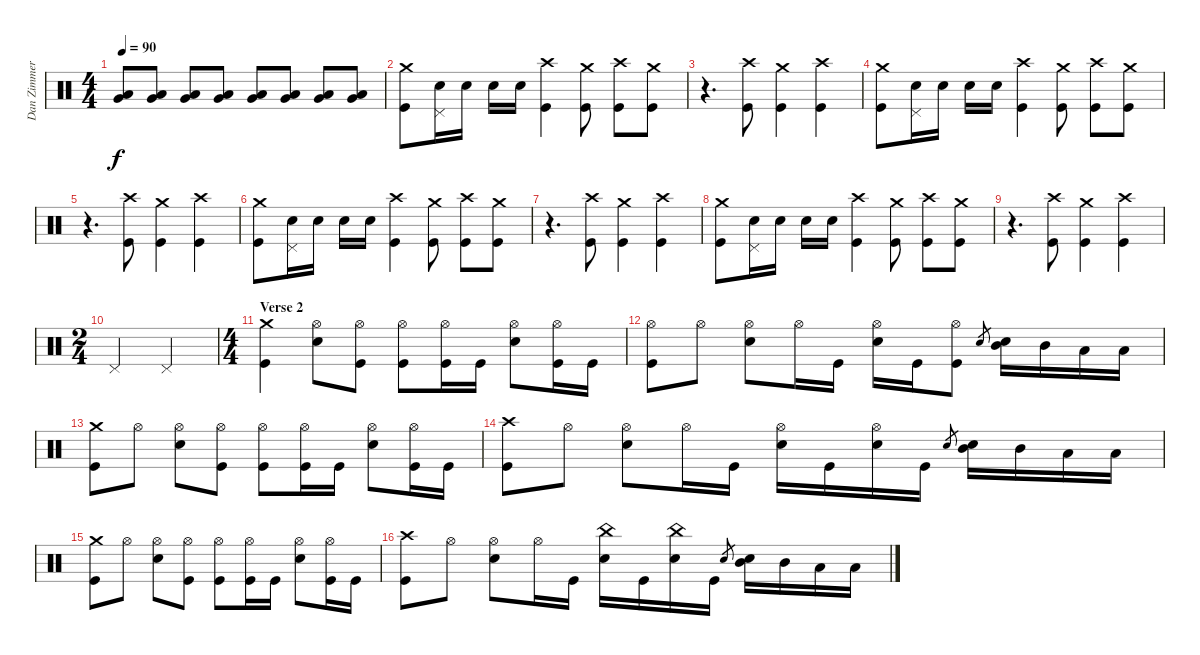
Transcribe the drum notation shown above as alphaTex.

\track ("Dan Zimmerman" "Dan Zimmer") {instrument percussion}
\staff {score}
\articulation defaults
\ts (4 4)
\tempo 90
\clef neutral
\ks c
("Very Low Tom (hit)" "Low Tom (hit)").8{dy f volume 16} ("Very Low Tom (hit)" "Low Tom (hit)").8 ("Very Low Tom (hit)" "Low Tom (hit)").8 ("Very Low Tom (hit)" "Low Tom (hit)").8 ("Very Low Tom (hit)" "Low Tom (hit)").8 ("Very Low Tom (hit)" "Low Tom (hit)").8 ("Very Low Tom (hit)" "Low Tom (hit)").8 ("Very Low Tom (hit)" "Low Tom (hit)").8 |
("Crash medium (hit)" "Kick (hit)").8 ("Pedal Hi-Hat (hit)" "Snare (hit) 2").16 "Snare (hit) 2".16 "Snare (hit) 2".16 "Snare (hit) 2".16 ("Crash high (hit)" "Kick (hit)").4 ("Crash medium (hit)" "Kick (hit)").8 ("Crash high (hit)" "Kick (hit)").8 ("Crash medium (hit)" "Kick (hit)").8 |
r.4{d} ("Crash high (hit)" "Kick (hit)").8 ("Crash medium (hit)" "Kick (hit)").4 ("Crash high (hit)" "Kick (hit)").4 |
("Crash medium (hit)" "Kick (hit)").8 ("Pedal Hi-Hat (hit)" "Snare (hit) 2").16 "Snare (hit) 2".16 "Snare (hit) 2".16 "Snare (hit) 2".16 ("Crash high (hit)" "Kick (hit)").4 ("Crash medium (hit)" "Kick (hit)").8 ("Crash high (hit)" "Kick (hit)").8 ("Crash medium (hit)" "Kick (hit)").8 |
r.4{d} ("Crash high (hit)" "Kick (hit)").8 ("Crash medium (hit)" "Kick (hit)").4 ("Crash high (hit)" "Kick (hit)").4 |
("Crash medium (hit)" "Kick (hit)").8 ("Pedal Hi-Hat (hit)" "Snare (hit) 2").16 "Snare (hit) 2".16 "Snare (hit) 2".16 "Snare (hit) 2".16 ("Crash high (hit)" "Kick (hit)").4 ("Crash medium (hit)" "Kick (hit)").8 ("Crash high (hit)" "Kick (hit)").8 ("Crash medium (hit)" "Kick (hit)").8 |
r.4{d} ("Crash high (hit)" "Kick (hit)").8 ("Crash medium (hit)" "Kick (hit)").4 ("Crash high (hit)" "Kick (hit)").4 |
("Crash medium (hit)" "Kick (hit)").8 ("Pedal Hi-Hat (hit)" "Snare (hit) 2").16 "Snare (hit) 2".16 "Snare (hit) 2".16 "Snare (hit) 2".16 ("Crash high (hit)" "Kick (hit)").4 ("Crash medium (hit)" "Kick (hit)").8 ("Crash high (hit)" "Kick (hit)").8 ("Crash medium (hit)" "Kick (hit)").8 |
r.4{d} ("Crash high (hit)" "Kick (hit)").8 ("Crash medium (hit)" "Kick (hit)").4 ("Crash high (hit)" "Kick (hit)").4 |
\ts (2 4)
"Pedal Hi-Hat (hit)".4 "Pedal Hi-Hat (hit)".4 |
\ts (4 4)
\section ("" "Verse 2")
("Crash medium (hit)" "Kick (hit)").4 ("Hi-Hat (open)" "Snare (hit) 2").8 ("Hi-Hat (open)" "Kick (hit)").8 ("Hi-Hat (open)" "Kick (hit)").8 ("Hi-Hat (open)" "Kick (hit)").16 "Kick (hit)".16 ("Hi-Hat (open)" "Snare (hit) 2").8 ("Hi-Hat (open)" "Kick (hit)").16 "Kick (hit)".16 |
("Hi-Hat (open)" "Kick (hit)").8 "Hi-Hat (open)".8 ("Hi-Hat (open)" "Snare (hit) 2").8 "Hi-Hat (open)".16 "Kick (hit)".16 ("Hi-Hat (open)" "Snare (hit) 2").16 "Kick (hit)".16 ("Hi-Hat (open)" "Kick (hit)").8 "Snare (hit) 2".8{gr} ("Mid Tom (hit)" "Snare (hit) 2").16 "Mid Tom (hit)".16 "Low Tom (hit)".16 "Low Tom (hit)".16 |
("Crash medium (hit)" "Kick (hit)").8 "Hi-Hat (open)".8 ("Hi-Hat (open)" "Snare (hit) 2").8 ("Hi-Hat (open)" "Kick (hit)").8 ("Hi-Hat (open)" "Kick (hit)").8 ("Hi-Hat (open)" "Kick (hit)").16 "Kick (hit)".16 ("Hi-Hat (open)" "Snare (hit) 2").8 ("Hi-Hat (open)" "Kick (hit)").16 "Kick (hit)".16 |
("Crash high (hit)" "Kick (hit)").8 "Hi-Hat (open)".8 ("Hi-Hat (open)" "Snare (hit) 2").8 "Hi-Hat (open)".16 "Kick (hit)".16 ("Hi-Hat (open)" "Snare (hit) 2").16 "Kick (hit)".16 ("Hi-Hat (open)" "Snare (hit) 2").16 "Kick (hit)".16 "Snare (hit) 2".8{gr} ("Mid Tom (hit)" "Snare (hit) 2").16 "Mid Tom (hit)".16 "Low Tom (hit)".16 "Low Tom (hit)".16 |
("Crash medium (hit)" "Kick (hit)").8 "Hi-Hat (open)".8 ("Hi-Hat (open)" "Snare (hit) 2").8 ("Hi-Hat (open)" "Kick (hit)").8 ("Hi-Hat (open)" "Kick (hit)").8 ("Hi-Hat (open)" "Kick (hit)").16 "Kick (hit)".16 ("Hi-Hat (open)" "Snare (hit) 2").8 ("Hi-Hat (open)" "Kick (hit)").16 "Kick (hit)".16 |
("Crash high (hit)" "Kick (hit)").8 "Hi-Hat (open)".8 ("Hi-Hat (open)" "Snare (hit) 2").8 "Hi-Hat (open)".16 "Kick (hit)".16 ("China (hit)" "Snare (hit) 2").16 "Kick (hit)".16 ("China (hit)" "Snare (hit) 2").16 "Kick (hit)".16 "Snare (hit) 2".8{gr} ("Mid Tom (hit)" "Snare (hit) 2").16 "Mid Tom (hit)".16 "Low Tom (hit)".16 "Low Tom (hit)".16
